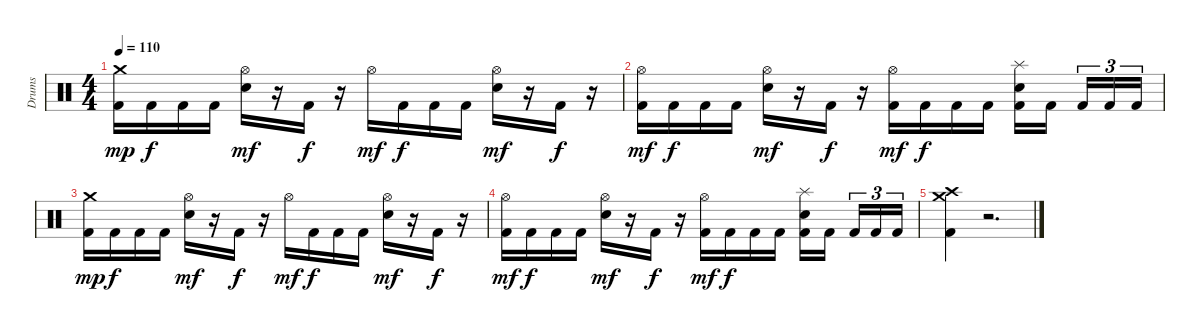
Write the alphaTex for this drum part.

\track ("Drums" "Drums") {instrument percussion}
\staff {score}
\articulation defaults
\ts (4 4)
\tempo 110
\clef neutral
\ks c
("Crash medium (hit)" "Kick (hit) 2").16{dy mp} "Kick (hit) 2".16{dy f} "Kick (hit) 2".16 "Kick (hit) 2".16 ("Hi-Hat (open)" "Electric Snare (hit)").16{dy mf} r.16 "Kick (hit) 2".16{dy f} r.16 "Hi-Hat (open)".16{dy mf} "Kick (hit) 2".16{dy f} "Kick (hit) 2".16 "Kick (hit) 2".16 ("Hi-Hat (open)" "Electric Snare (hit)").16{dy mf} r.16 "Kick (hit) 2".16{dy f} r.16 |
("Hi-Hat (open)" "Kick (hit) 2").16{dy mf} "Kick (hit) 2".16{dy f} "Kick (hit) 2".16 "Kick (hit) 2".16 ("Hi-Hat (open)" "Electric Snare (hit)").16{dy mf} r.16 "Kick (hit) 2".16{dy f} r.16 ("Hi-Hat (open)" "Kick (hit) 2").16{dy mf} "Kick (hit) 2".16{dy f} "Kick (hit) 2".16 "Kick (hit) 2".16 ("Splash (hit)" "Electric Snare (hit)" "Kick (hit) 2").16 "Kick (hit) 2".16 "Kick (hit) 2".16{tu (3 2)} "Kick (hit) 2".16{tu (3 2)} "Kick (hit) 2".16{tu (3 2)} |
("Crash medium (hit)" "Kick (hit) 2").16{dy mp} "Kick (hit) 2".16{dy f} "Kick (hit) 2".16 "Kick (hit) 2".16 ("Hi-Hat (open)" "Electric Snare (hit)").16{dy mf} r.16 "Kick (hit) 2".16{dy f} r.16 "Hi-Hat (open)".16{dy mf} "Kick (hit) 2".16{dy f} "Kick (hit) 2".16 "Kick (hit) 2".16 ("Hi-Hat (open)" "Electric Snare (hit)").16{dy mf} r.16 "Kick (hit) 2".16{dy f} r.16 |
("Hi-Hat (open)" "Kick (hit) 2").16{dy mf} "Kick (hit) 2".16{dy f} "Kick (hit) 2".16 "Kick (hit) 2".16 ("Hi-Hat (open)" "Electric Snare (hit)").16{dy mf} r.16 "Kick (hit) 2".16{dy f} r.16 ("Hi-Hat (open)" "Kick (hit) 2").16{dy mf} "Kick (hit) 2".16{dy f} "Kick (hit) 2".16 "Kick (hit) 2".16 ("Splash (hit)" "Electric Snare (hit)" "Kick (hit) 2").16 "Kick (hit) 2".16 "Kick (hit) 2".16{tu (3 2)} "Kick (hit) 2".16{tu (3 2)} "Kick (hit) 2".16{tu (3 2)} |
("Crash high (hit)" "Crash medium (hit)" "Kick (hit) 2").4 r.2{d}
